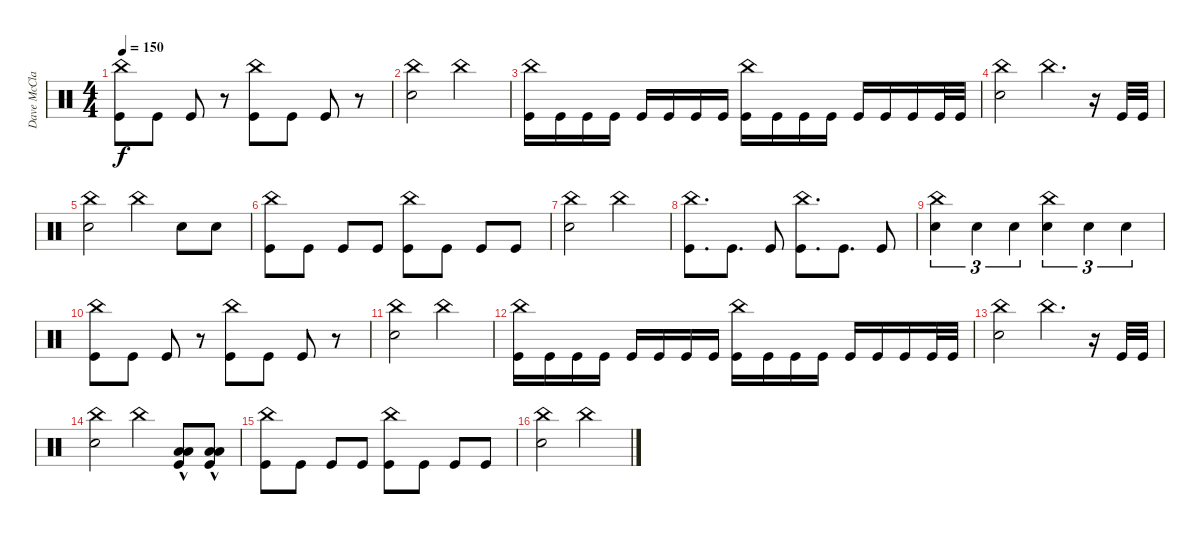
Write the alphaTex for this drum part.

\track ("Dave McClaine" "Dave McCla") {instrument percussion}
\staff {score}
\articulation defaults
\ts (4 4)
\tempo 150
\clef neutral
\ks c
("Kick (hit)" "China (hit)").8{dy f} "Kick (hit)".8 "Kick (hit)".8 r.8 ("Kick (hit)" "China (hit)").8 "Kick (hit)".8 "Kick (hit)".8 r.8 |
("Snare (hit) 2" "China (hit)").2 "China (hit)".2 |
("Kick (hit)" "China (hit)").16 "Kick (hit)".16 "Kick (hit)".16 "Kick (hit)".16 "Kick (hit)".16 "Kick (hit)".16 "Kick (hit)".16 "Kick (hit)".16 ("Kick (hit)" "China (hit)").16 "Kick (hit)".16 "Kick (hit)".16 "Kick (hit)".16 "Kick (hit)".16 "Kick (hit)".16 "Kick (hit)".16 "Kick (hit)".32 "Kick (hit)".32 |
("Snare (hit) 2" "China (hit)").2 "China (hit)".4{d} r.16 "Kick (hit)".32 "Kick (hit)".32 |
("Snare (hit) 2" "China (hit)").2 "China (hit)".4 "Snare (hit) 2".8 "Snare (hit) 2".8 |
("Kick (hit)" "China (hit)").8 "Kick (hit)".8 "Kick (hit)".8 "Kick (hit)".8 ("Kick (hit)" "China (hit)").8 "Kick (hit)".8 "Kick (hit)".8 "Kick (hit)".8 |
("Snare (hit) 2" "China (hit)").2 "China (hit)".2 |
("Kick (hit)" "China (hit)").8{d} "Kick (hit)".8{d} "Kick (hit)".8 ("Kick (hit)" "China (hit)").8{d} "Kick (hit)".8{d} "Kick (hit)".8 |
("Snare (hit) 2" "China (hit)").4{tu (3 2)} "Snare (hit) 2".4{tu (3 2)} "Snare (hit) 2".4{tu (3 2)} ("China (hit)" "Snare (hit) 2").4{tu (3 2)} "Snare (hit) 2".4{tu (3 2)} "Snare (hit) 2".4{tu (3 2)} |
("Kick (hit)" "China (hit)").8 "Kick (hit)".8 "Kick (hit)".8 r.8 ("Kick (hit)" "China (hit)").8 "Kick (hit)".8 "Kick (hit)".8 r.8 |
("Snare (hit) 2" "China (hit)").2 "China (hit)".2 |
("Kick (hit)" "China (hit)").16 "Kick (hit)".16 "Kick (hit)".16 "Kick (hit)".16 "Kick (hit)".16 "Kick (hit)".16 "Kick (hit)".16 "Kick (hit)".16 ("Kick (hit)" "China (hit)").16 "Kick (hit)".16 "Kick (hit)".16 "Kick (hit)".16 "Kick (hit)".16 "Kick (hit)".16 "Kick (hit)".16 "Kick (hit)".32 "Kick (hit)".32 |
("Snare (hit) 2" "China (hit)").2 "China (hit)".4{d} r.16 "Kick (hit)".32 "Kick (hit)".32 |
("Snare (hit) 2" "China (hit)").2 "China (hit)".4 ("Low Tom (hit)" "Low Floor Tom (hit)"{hac} "Kick (hit)").8 ("Low Tom (hit)" "Low Floor Tom (hit)"{hac} "Kick (hit)").8 |
("Kick (hit)" "China (hit)").8 "Kick (hit)".8 "Kick (hit)".8 "Kick (hit)".8 ("Kick (hit)" "China (hit)").8 "Kick (hit)".8 "Kick (hit)".8 "Kick (hit)".8 |
("Snare (hit) 2" "China (hit)").2 "China (hit)".2
